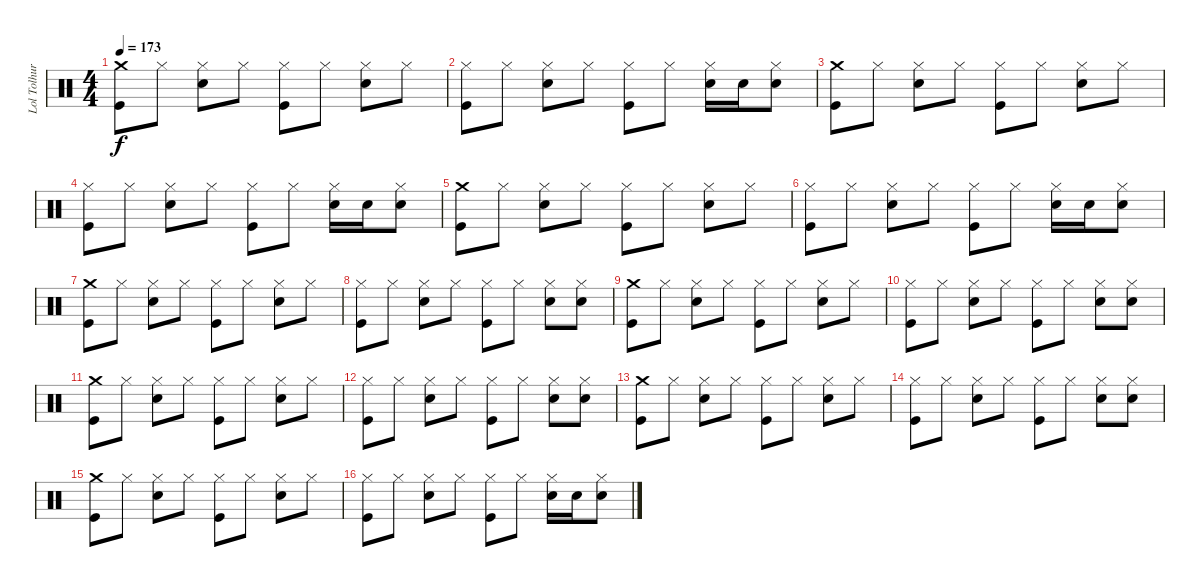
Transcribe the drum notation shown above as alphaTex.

\track ("Lol Tolhurst" "Lol Tolhur") {instrument percussion}
\staff {score}
\articulation defaults
\ts (4 4)
\tempo 173
\clef neutral
\ks c
("Crash medium (hit)" "Kick (hit)").8{dy f} "Hi-Hat (closed)".8 ("Hi-Hat (closed)" "Snare (hit) 2").8 "Hi-Hat (closed)".8 ("Hi-Hat (closed)" "Kick (hit)").8 "Hi-Hat (closed)".8 ("Hi-Hat (closed)" "Snare (hit) 2").8 "Hi-Hat (closed)".8 |
("Hi-Hat (closed)" "Kick (hit)").8 "Hi-Hat (closed)".8 ("Hi-Hat (closed)" "Snare (hit) 2").8 "Hi-Hat (closed)".8 ("Hi-Hat (closed)" "Kick (hit)").8 "Hi-Hat (closed)".8 ("Hi-Hat (closed)" "Snare (hit) 2").16 "Snare (hit) 2".16 ("Hi-Hat (closed)" "Snare (hit) 2").8 |
("Crash medium (hit)" "Kick (hit)").8 "Hi-Hat (closed)".8 ("Hi-Hat (closed)" "Snare (hit) 2").8 "Hi-Hat (closed)".8 ("Hi-Hat (closed)" "Kick (hit)").8 "Hi-Hat (closed)".8 ("Hi-Hat (closed)" "Snare (hit) 2").8 "Hi-Hat (closed)".8 |
("Hi-Hat (closed)" "Kick (hit)").8 "Hi-Hat (closed)".8 ("Hi-Hat (closed)" "Snare (hit) 2").8 "Hi-Hat (closed)".8 ("Hi-Hat (closed)" "Kick (hit)").8 "Hi-Hat (closed)".8 ("Hi-Hat (closed)" "Snare (hit) 2").16 "Snare (hit) 2".16 ("Hi-Hat (closed)" "Snare (hit) 2").8 |
("Crash medium (hit)" "Kick (hit)").8 "Hi-Hat (closed)".8 ("Hi-Hat (closed)" "Snare (hit) 2").8 "Hi-Hat (closed)".8 ("Hi-Hat (closed)" "Kick (hit)").8 "Hi-Hat (closed)".8 ("Hi-Hat (closed)" "Snare (hit) 2").8 "Hi-Hat (closed)".8 |
("Hi-Hat (closed)" "Kick (hit)").8 "Hi-Hat (closed)".8 ("Hi-Hat (closed)" "Snare (hit) 2").8 "Hi-Hat (closed)".8 ("Hi-Hat (closed)" "Kick (hit)").8 "Hi-Hat (closed)".8 ("Hi-Hat (closed)" "Snare (hit) 2").16 "Snare (hit) 2".16 ("Hi-Hat (closed)" "Snare (hit) 2").8 |
("Crash medium (hit)" "Kick (hit)").8 "Hi-Hat (closed)".8 ("Hi-Hat (closed)" "Snare (hit) 2").8 "Hi-Hat (closed)".8 ("Hi-Hat (closed)" "Kick (hit)").8 "Hi-Hat (closed)".8 ("Hi-Hat (closed)" "Snare (hit) 2").8 "Hi-Hat (closed)".8 |
("Hi-Hat (closed)" "Kick (hit)").8 "Hi-Hat (closed)".8 ("Hi-Hat (closed)" "Snare (hit) 2").8 "Hi-Hat (closed)".8 ("Hi-Hat (closed)" "Kick (hit)").8 "Hi-Hat (closed)".8 ("Hi-Hat (closed)" "Snare (hit) 2").8 ("Hi-Hat (closed)" "Snare (hit) 2").8 |
("Crash medium (hit)" "Kick (hit)").8 "Hi-Hat (closed)".8 ("Hi-Hat (closed)" "Snare (hit) 2").8 "Hi-Hat (closed)".8 ("Hi-Hat (closed)" "Kick (hit)").8 "Hi-Hat (closed)".8 ("Hi-Hat (closed)" "Snare (hit) 2").8 "Hi-Hat (closed)".8 |
("Hi-Hat (closed)" "Kick (hit)").8 "Hi-Hat (closed)".8 ("Hi-Hat (closed)" "Snare (hit) 2").8 "Hi-Hat (closed)".8 ("Hi-Hat (closed)" "Kick (hit)").8 "Hi-Hat (closed)".8 ("Hi-Hat (closed)" "Snare (hit) 2").8 ("Hi-Hat (closed)" "Snare (hit) 2").8 |
("Crash medium (hit)" "Kick (hit)").8 "Hi-Hat (closed)".8 ("Hi-Hat (closed)" "Snare (hit) 2").8 "Hi-Hat (closed)".8 ("Hi-Hat (closed)" "Kick (hit)").8 "Hi-Hat (closed)".8 ("Hi-Hat (closed)" "Snare (hit) 2").8 "Hi-Hat (closed)".8 |
("Hi-Hat (closed)" "Kick (hit)").8 "Hi-Hat (closed)".8 ("Hi-Hat (closed)" "Snare (hit) 2").8 "Hi-Hat (closed)".8 ("Hi-Hat (closed)" "Kick (hit)").8 "Hi-Hat (closed)".8 ("Hi-Hat (closed)" "Snare (hit) 2").8 ("Hi-Hat (closed)" "Snare (hit) 2").8 |
("Crash medium (hit)" "Kick (hit)").8 "Hi-Hat (closed)".8 ("Hi-Hat (closed)" "Snare (hit) 2").8 "Hi-Hat (closed)".8 ("Hi-Hat (closed)" "Kick (hit)").8 "Hi-Hat (closed)".8 ("Hi-Hat (closed)" "Snare (hit) 2").8 "Hi-Hat (closed)".8 |
("Hi-Hat (closed)" "Kick (hit)").8 "Hi-Hat (closed)".8 ("Hi-Hat (closed)" "Snare (hit) 2").8 "Hi-Hat (closed)".8 ("Hi-Hat (closed)" "Kick (hit)").8 "Hi-Hat (closed)".8 ("Hi-Hat (closed)" "Snare (hit) 2").8 ("Hi-Hat (closed)" "Snare (hit) 2").8 |
("Crash medium (hit)" "Kick (hit)").8 "Hi-Hat (closed)".8 ("Hi-Hat (closed)" "Snare (hit) 2").8 "Hi-Hat (closed)".8 ("Hi-Hat (closed)" "Kick (hit)").8 "Hi-Hat (closed)".8 ("Hi-Hat (closed)" "Snare (hit) 2").8 "Hi-Hat (closed)".8 |
("Hi-Hat (closed)" "Kick (hit)").8 "Hi-Hat (closed)".8 ("Hi-Hat (closed)" "Snare (hit) 2").8 "Hi-Hat (closed)".8 ("Hi-Hat (closed)" "Kick (hit)").8 "Hi-Hat (closed)".8 ("Hi-Hat (closed)" "Snare (hit) 2").16 "Snare (hit) 2".16 ("Hi-Hat (closed)" "Snare (hit) 2").8
